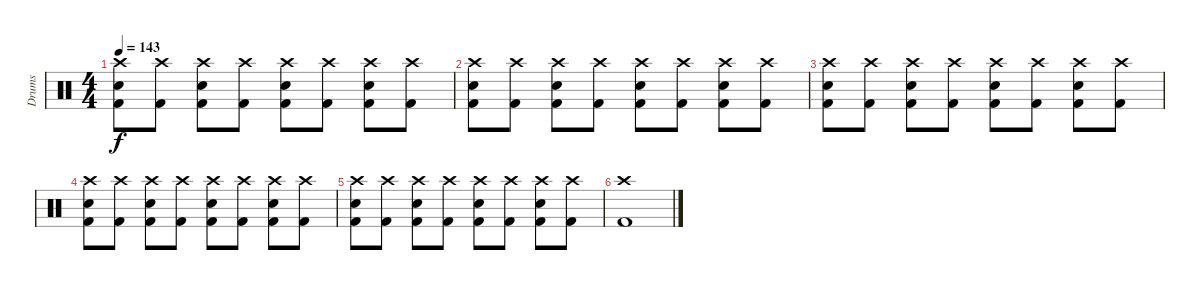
\track ("Drums" "Drums") {instrument percussion}
\staff {score}
\articulation defaults
\ts (4 4)
\tempo 143
\clef neutral
\ks c
("Crash high (hit)" "Electric Snare (hit)" "Kick (hit) 2").8{dy f} ("Crash high (hit)" "Kick (hit) 2").8 ("Crash high (hit)" "Electric Snare (hit)" "Kick (hit) 2").8 ("Crash high (hit)" "Kick (hit) 2").8 ("Crash high (hit)" "Electric Snare (hit)" "Kick (hit) 2").8 ("Crash high (hit)" "Kick (hit) 2").8 ("Crash high (hit)" "Electric Snare (hit)" "Kick (hit) 2").8 ("Crash high (hit)" "Kick (hit) 2").8 |
("Crash high (hit)" "Electric Snare (hit)" "Kick (hit) 2").8 ("Crash high (hit)" "Kick (hit) 2").8 ("Crash high (hit)" "Electric Snare (hit)" "Kick (hit) 2").8 ("Crash high (hit)" "Kick (hit) 2").8 ("Crash high (hit)" "Electric Snare (hit)" "Kick (hit) 2").8 ("Crash high (hit)" "Kick (hit) 2").8 ("Crash high (hit)" "Electric Snare (hit)" "Kick (hit) 2").8 ("Crash high (hit)" "Kick (hit) 2").8 |
("Crash high (hit)" "Electric Snare (hit)" "Kick (hit) 2").8 ("Crash high (hit)" "Kick (hit) 2").8 ("Crash high (hit)" "Electric Snare (hit)" "Kick (hit) 2").8 ("Crash high (hit)" "Kick (hit) 2").8 ("Crash high (hit)" "Electric Snare (hit)" "Kick (hit) 2").8 ("Crash high (hit)" "Kick (hit) 2").8 ("Crash high (hit)" "Electric Snare (hit)" "Kick (hit) 2").8 ("Crash high (hit)" "Kick (hit) 2").8 |
("Crash high (hit)" "Electric Snare (hit)" "Kick (hit) 2").8 ("Crash high (hit)" "Kick (hit) 2").8 ("Crash high (hit)" "Electric Snare (hit)" "Kick (hit) 2").8 ("Crash high (hit)" "Kick (hit) 2").8 ("Crash high (hit)" "Electric Snare (hit)" "Kick (hit) 2").8 ("Crash high (hit)" "Kick (hit) 2").8 ("Crash high (hit)" "Electric Snare (hit)" "Kick (hit) 2").8 ("Crash high (hit)" "Kick (hit) 2").8 |
("Crash high (hit)" "Electric Snare (hit)" "Kick (hit) 2").8 ("Crash high (hit)" "Kick (hit) 2").8 ("Crash high (hit)" "Electric Snare (hit)" "Kick (hit) 2").8 ("Crash high (hit)" "Kick (hit) 2").8 ("Crash high (hit)" "Electric Snare (hit)" "Kick (hit) 2").8 ("Crash high (hit)" "Kick (hit) 2").8 ("Crash high (hit)" "Electric Snare (hit)" "Kick (hit) 2").8 ("Crash high (hit)" "Kick (hit) 2").8 |
("Crash high (hit)" "Kick (hit) 2").1{volume 0}
